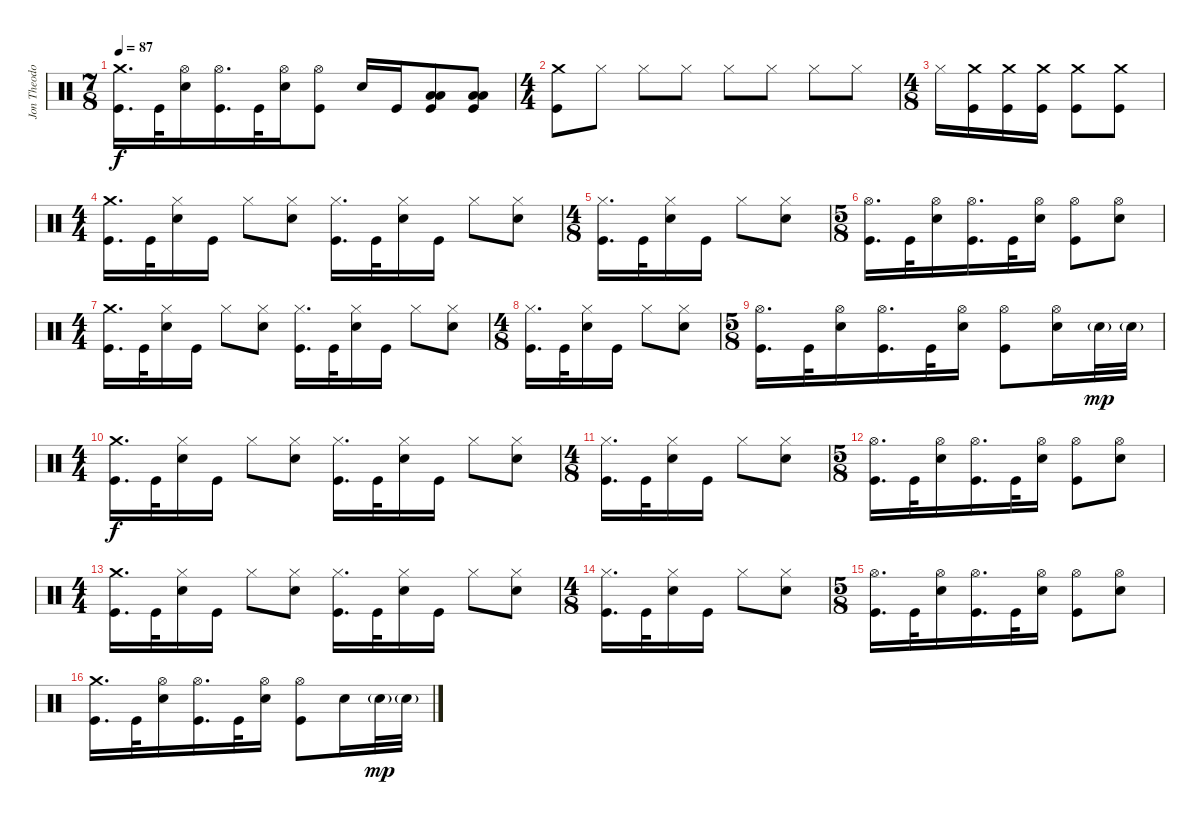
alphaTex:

\track ("Jon Theodore" "Jon Theodo") {instrument percussion}
\staff {score}
\articulation defaults
\ts (7 8)
\tempo 87
\clef neutral
\ks c
("Crash medium (hit)" "Kick (hit)").16{d dy f} "Kick (hit)".32 ("Hi-Hat (open)" "Snare (hit) 2").16 ("Hi-Hat (open)" "Kick (hit)").16{d} "Kick (hit)".32 ("Hi-Hat (open)" "Snare (hit) 2").16 ("Hi-Hat (open)" "Kick (hit)").8 "Snare (hit) 2".16 "Kick (hit)".16 ("Low Tom (hit)" "Low Floor Tom (hit)" "Kick (hit)").8 ("Low Tom (hit)" "Low Floor Tom (hit)" "Kick (hit)").8 |
\ts (4 4)
("Crash medium (hit)" "Kick (hit)").8 "Hi-Hat (closed)".8 "Hi-Hat (closed)".8 "Hi-Hat (closed)".8 "Hi-Hat (closed)".8 "Hi-Hat (closed)".8 "Hi-Hat (closed)".8 "Hi-Hat (closed)".8 |
\ts (4 8)
"Hi-Hat (closed)".16 ("Crash medium (hit)" "Kick (hit)").16 ("Crash medium (hit)" "Kick (hit)").16 ("Crash medium (hit)" "Kick (hit)").16 ("Crash medium (hit)" "Kick (hit)").8 ("Crash medium (hit)" "Kick (hit)").8 |
\ts (4 4)
("Crash medium (hit)" "Kick (hit)").16{d} "Kick (hit)".32 ("Hi-Hat (closed)" "Snare (hit) 2").16 "Kick (hit)".16 "Hi-Hat (closed)".8 ("Hi-Hat (closed)" "Snare (hit) 2").8 ("Hi-Hat (closed)" "Kick (hit)").16{d} "Kick (hit)".32 ("Hi-Hat (closed)" "Snare (hit) 2").16 "Kick (hit)".16 "Hi-Hat (closed)".8 ("Hi-Hat (closed)" "Snare (hit) 2").8 |
\ts (4 8)
("Hi-Hat (closed)" "Kick (hit)").16{d} "Kick (hit)".32 ("Hi-Hat (closed)" "Snare (hit) 2").16 "Kick (hit)".16 "Hi-Hat (closed)".8 ("Hi-Hat (closed)" "Snare (hit) 2").8 |
\ts (5 8)
("Hi-Hat (open)" "Kick (hit)").16{d} "Kick (hit)".32 ("Hi-Hat (open)" "Snare (hit) 2").16 ("Hi-Hat (open)" "Kick (hit)").16{d} "Kick (hit)".32 ("Hi-Hat (open)" "Snare (hit) 2").16 ("Hi-Hat (open)" "Kick (hit)").8 ("Hi-Hat (open)" "Snare (hit) 2").8 |
\ts (4 4)
("Crash medium (hit)" "Kick (hit)").16{d} "Kick (hit)".32 ("Hi-Hat (closed)" "Snare (hit) 2").16 "Kick (hit)".16 "Hi-Hat (closed)".8 ("Hi-Hat (closed)" "Snare (hit) 2").8 ("Hi-Hat (closed)" "Kick (hit)").16{d} "Kick (hit)".32 ("Hi-Hat (closed)" "Snare (hit) 2").16 "Kick (hit)".16 "Hi-Hat (closed)".8 ("Hi-Hat (closed)" "Snare (hit) 2").8 |
\ts (4 8)
("Hi-Hat (closed)" "Kick (hit)").16{d} "Kick (hit)".32 ("Hi-Hat (closed)" "Snare (hit) 2").16 "Kick (hit)".16 "Hi-Hat (closed)".8 ("Hi-Hat (closed)" "Snare (hit) 2").8 |
\ts (5 8)
("Hi-Hat (open)" "Kick (hit)").16{d} "Kick (hit)".32 ("Hi-Hat (open)" "Snare (hit) 2").16 ("Hi-Hat (open)" "Kick (hit)").16{d} "Kick (hit)".32 ("Hi-Hat (open)" "Snare (hit) 2").16 ("Hi-Hat (open)" "Kick (hit)").8 ("Hi-Hat (open)" "Snare (hit) 2").16 "Snare (hit) 2"{g}.32{dy mp} "Snare (hit) 2"{g}.32 |
\ts (4 4)
("Crash medium (hit)" "Kick (hit)").16{d dy f} "Kick (hit)".32 ("Hi-Hat (closed)" "Snare (hit) 2").16 "Kick (hit)".16 "Hi-Hat (closed)".8 ("Hi-Hat (closed)" "Snare (hit) 2").8 ("Hi-Hat (closed)" "Kick (hit)").16{d} "Kick (hit)".32 ("Hi-Hat (closed)" "Snare (hit) 2").16 "Kick (hit)".16 "Hi-Hat (closed)".8 ("Hi-Hat (closed)" "Snare (hit) 2").8 |
\ts (4 8)
("Hi-Hat (closed)" "Kick (hit)").16{d} "Kick (hit)".32 ("Hi-Hat (closed)" "Snare (hit) 2").16 "Kick (hit)".16 "Hi-Hat (closed)".8 ("Hi-Hat (closed)" "Snare (hit) 2").8 |
\ts (5 8)
("Hi-Hat (open)" "Kick (hit)").16{d} "Kick (hit)".32 ("Hi-Hat (open)" "Snare (hit) 2").16 ("Hi-Hat (open)" "Kick (hit)").16{d} "Kick (hit)".32 ("Hi-Hat (open)" "Snare (hit) 2").16 ("Hi-Hat (open)" "Kick (hit)").8 ("Hi-Hat (open)" "Snare (hit) 2").8 |
\ts (4 4)
("Crash medium (hit)" "Kick (hit)").16{d} "Kick (hit)".32 ("Hi-Hat (closed)" "Snare (hit) 2").16 "Kick (hit)".16 "Hi-Hat (closed)".8 ("Hi-Hat (closed)" "Snare (hit) 2").8 ("Hi-Hat (closed)" "Kick (hit)").16{d} "Kick (hit)".32 ("Hi-Hat (closed)" "Snare (hit) 2").16 "Kick (hit)".16 "Hi-Hat (closed)".8 ("Hi-Hat (closed)" "Snare (hit) 2").8 |
\ts (4 8)
("Hi-Hat (closed)" "Kick (hit)").16{d} "Kick (hit)".32 ("Hi-Hat (closed)" "Snare (hit) 2").16 "Kick (hit)".16 "Hi-Hat (closed)".8 ("Hi-Hat (closed)" "Snare (hit) 2").8 |
\ts (5 8)
("Hi-Hat (open)" "Kick (hit)").16{d} "Kick (hit)".32 ("Hi-Hat (open)" "Snare (hit) 2").16 ("Hi-Hat (open)" "Kick (hit)").16{d} "Kick (hit)".32 ("Hi-Hat (open)" "Snare (hit) 2").16 ("Hi-Hat (open)" "Kick (hit)").8 ("Hi-Hat (open)" "Snare (hit) 2").8 |
("Crash medium (hit)" "Kick (hit)").16{d} "Kick (hit)".32 ("Hi-Hat (open)" "Snare (hit) 2").16 ("Hi-Hat (open)" "Kick (hit)").16{d} "Kick (hit)".32 ("Hi-Hat (open)" "Snare (hit) 2").16 ("Hi-Hat (open)" "Kick (hit)").8 "Snare (hit) 2".16 "Snare (hit) 2"{g}.32{dy mp} "Snare (hit) 2"{g}.32
